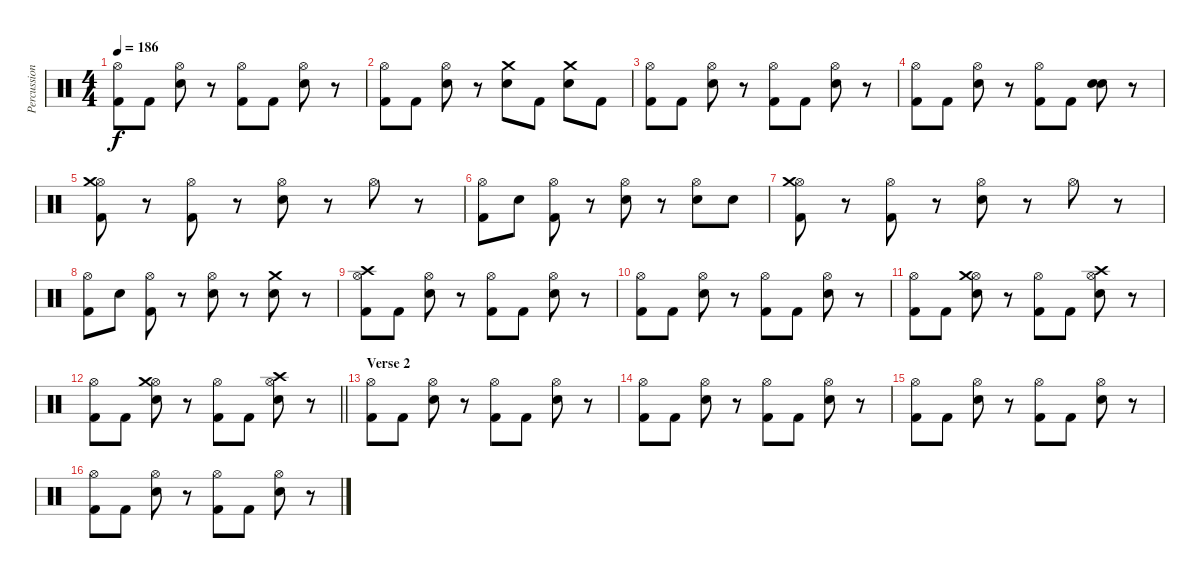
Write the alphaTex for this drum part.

\track ("Percussion" "Percussion") {instrument percussion}
\staff {score}
\articulation defaults
\ts (4 4)
\tempo 186
\clef neutral
\ks c
("Kick (hit) 2" "Hi-Hat (open)").8{dy f} "Kick (hit) 2".8 ("Electric Snare (hit)" "Hi-Hat (open)").8 r.8 ("Kick (hit) 2" "Hi-Hat (open)").8 "Kick (hit) 2".8 ("Electric Snare (hit)" "Hi-Hat (open)").8 r.8 |
("Kick (hit) 2" "Hi-Hat (open)").8 "Kick (hit) 2".8 ("Electric Snare (hit)" "Hi-Hat (open)").8 r.8 ("Electric Snare (hit)" "Crash medium (hit)").8 "Kick (hit) 2".8 ("Electric Snare (hit)" "Crash medium (hit)").8 "Kick (hit) 2".8 |
("Kick (hit) 2" "Hi-Hat (open)").8 "Kick (hit) 2".8 ("Electric Snare (hit)" "Hi-Hat (open)").8 r.8 ("Kick (hit) 2" "Hi-Hat (open)").8 "Kick (hit) 2".8 ("Electric Snare (hit)" "Hi-Hat (open)").8 r.8 |
("Kick (hit) 2" "Hi-Hat (open)").8 "Kick (hit) 2".8 ("Electric Snare (hit)" "Hi-Hat (open)").8 r.8 ("Kick (hit) 2" "Hi-Hat (open)").8 "Kick (hit) 2".8 ("Electric Snare (hit)" "Electric Snare (hit)").8 r.8 |
("Kick (hit) 2" "Hi-Hat (open)" "Crash medium (hit)").8 r.8 ("Kick (hit) 2" "Hi-Hat (open)").8 r.8 ("Electric Snare (hit)" "Hi-Hat (open)").8 r.8 "Hi-Hat (open)".8 r.8 |
("Kick (hit) 2" "Hi-Hat (open)").8 "Electric Snare (hit)".8 ("Kick (hit) 2" "Hi-Hat (open)").8 r.8 ("Electric Snare (hit)" "Hi-Hat (open)").8 r.8 ("Electric Snare (hit)" "Hi-Hat (open)").8 "Electric Snare (hit)".8 |
("Kick (hit) 2" "Hi-Hat (open)" "Crash medium (hit)").8 r.8 ("Kick (hit) 2" "Hi-Hat (open)").8 r.8 ("Electric Snare (hit)" "Hi-Hat (open)").8 r.8 "Hi-Hat (open)".8 r.8 |
("Kick (hit) 2" "Hi-Hat (open)").8 "Electric Snare (hit)".8 ("Kick (hit) 2" "Hi-Hat (open)").8 r.8 ("Electric Snare (hit)" "Hi-Hat (open)").8 r.8 ("Electric Snare (hit)" "Crash medium (hit)").8 r.8 |
("Kick (hit) 2" "Hi-Hat (open)" "Crash high (hit)").8 "Kick (hit) 2".8 ("Electric Snare (hit)" "Hi-Hat (open)").8 r.8 ("Kick (hit) 2" "Hi-Hat (open)").8 "Kick (hit) 2".8 ("Electric Snare (hit)" "Hi-Hat (open)").8 r.8 |
("Kick (hit) 2" "Hi-Hat (open)").8 "Kick (hit) 2".8 ("Electric Snare (hit)" "Hi-Hat (open)").8 r.8 ("Kick (hit) 2" "Hi-Hat (open)").8 "Kick (hit) 2".8 ("Electric Snare (hit)" "Hi-Hat (open)").8 r.8 |
("Kick (hit) 2" "Hi-Hat (open)").8 "Kick (hit) 2".8 ("Electric Snare (hit)" "Hi-Hat (open)" "Crash medium (hit)").8 r.8 ("Kick (hit) 2" "Hi-Hat (open)").8 "Kick (hit) 2".8 ("Electric Snare (hit)" "Hi-Hat (open)" "Crash high (hit)").8 r.8 |
\barLineRight lightlight
("Kick (hit) 2" "Hi-Hat (open)").8 "Kick (hit) 2".8 ("Electric Snare (hit)" "Hi-Hat (open)" "Crash medium (hit)").8 r.8 ("Kick (hit) 2" "Hi-Hat (open)").8 "Kick (hit) 2".8 ("Electric Snare (hit)" "Hi-Hat (open)" "Crash high (hit)").8 r.8 |
\section ("" "Verse 2")
("Kick (hit) 2" "Hi-Hat (open)").8 "Kick (hit) 2".8 ("Electric Snare (hit)" "Hi-Hat (open)").8 r.8 ("Kick (hit) 2" "Hi-Hat (open)").8 "Kick (hit) 2".8 ("Electric Snare (hit)" "Hi-Hat (open)").8 r.8 |
("Kick (hit) 2" "Hi-Hat (open)").8 "Kick (hit) 2".8 ("Electric Snare (hit)" "Hi-Hat (open)").8 r.8 ("Kick (hit) 2" "Hi-Hat (open)").8 "Kick (hit) 2".8 ("Electric Snare (hit)" "Hi-Hat (open)").8 r.8 |
("Kick (hit) 2" "Hi-Hat (open)").8 "Kick (hit) 2".8 ("Electric Snare (hit)" "Hi-Hat (open)").8 r.8 ("Kick (hit) 2" "Hi-Hat (open)").8 "Kick (hit) 2".8 ("Electric Snare (hit)" "Hi-Hat (open)").8 r.8 |
("Kick (hit) 2" "Hi-Hat (open)").8 "Kick (hit) 2".8 ("Electric Snare (hit)" "Hi-Hat (open)").8 r.8 ("Kick (hit) 2" "Hi-Hat (open)").8 "Kick (hit) 2".8 ("Electric Snare (hit)" "Hi-Hat (open)").8 r.8
